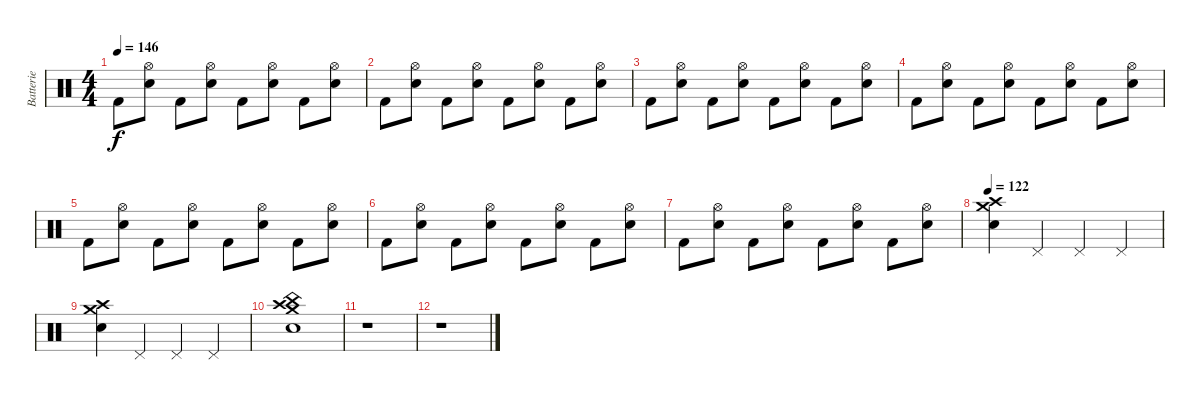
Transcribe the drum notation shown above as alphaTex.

\track ("Batterie" "Batterie") {instrument percussion}
\staff {score}
\articulation defaults
\ts (4 4)
\tempo 146
\clef neutral
\ks c "Kick (hit) 2".8{dy f}
("Electric Snare (hit)" "Hi-Hat (open)").8 "Kick (hit) 2".8 ("Electric Snare (hit)" "Hi-Hat (open)").8 "Kick (hit) 2".8 ("Electric Snare (hit)" "Hi-Hat (open)").8 "Kick (hit) 2".8 ("Electric Snare (hit)" "Hi-Hat (open)").8 |
"Kick (hit) 2".8 ("Electric Snare (hit)" "Hi-Hat (open)").8 "Kick (hit) 2".8 ("Electric Snare (hit)" "Hi-Hat (open)").8 "Kick (hit) 2".8 ("Electric Snare (hit)" "Hi-Hat (open)").8 "Kick (hit) 2".8 ("Electric Snare (hit)" "Hi-Hat (open)").8 |
"Kick (hit) 2".8 ("Electric Snare (hit)" "Hi-Hat (open)").8 "Kick (hit) 2".8 ("Electric Snare (hit)" "Hi-Hat (open)").8 "Kick (hit) 2".8 ("Electric Snare (hit)" "Hi-Hat (open)").8 "Kick (hit) 2".8 ("Electric Snare (hit)" "Hi-Hat (open)").8 |
"Kick (hit) 2".8 ("Electric Snare (hit)" "Hi-Hat (open)").8 "Kick (hit) 2".8 ("Electric Snare (hit)" "Hi-Hat (open)").8 "Kick (hit) 2".8 ("Electric Snare (hit)" "Hi-Hat (open)").8 "Kick (hit) 2".8 ("Electric Snare (hit)" "Hi-Hat (open)").8 |
"Kick (hit) 2".8 ("Electric Snare (hit)" "Hi-Hat (open)").8 "Kick (hit) 2".8 ("Electric Snare (hit)" "Hi-Hat (open)").8 "Kick (hit) 2".8 ("Electric Snare (hit)" "Hi-Hat (open)").8 "Kick (hit) 2".8 ("Electric Snare (hit)" "Hi-Hat (open)").8 |
"Kick (hit) 2".8 ("Electric Snare (hit)" "Hi-Hat (open)").8 "Kick (hit) 2".8 ("Electric Snare (hit)" "Hi-Hat (open)").8 "Kick (hit) 2".8 ("Electric Snare (hit)" "Hi-Hat (open)").8 "Kick (hit) 2".8 ("Electric Snare (hit)" "Hi-Hat (open)").8 |
"Kick (hit) 2".8 ("Electric Snare (hit)" "Hi-Hat (open)").8 "Kick (hit) 2".8 ("Electric Snare (hit)" "Hi-Hat (open)").8 "Kick (hit) 2".8 ("Electric Snare (hit)" "Hi-Hat (open)").8 "Kick (hit) 2".8 ("Electric Snare (hit)" "Hi-Hat (open)").8 |
\tempo 122
("Crash high (hit)" "Crash medium (hit)" "Electric Snare (hit)").4 "Pedal Hi-Hat (hit)".4 "Pedal Hi-Hat (hit)".4 "Pedal Hi-Hat (hit)".4 |
("Crash high (hit)" "Crash medium (hit)" "Electric Snare (hit)").4 "Pedal Hi-Hat (hit)".4 "Pedal Hi-Hat (hit)".4 "Pedal Hi-Hat (hit)".4 |
("Crash high (hit)" "Crash medium (hit)" "Electric Snare (hit)" "China (hit)").1 |
r.1 |
r.1
